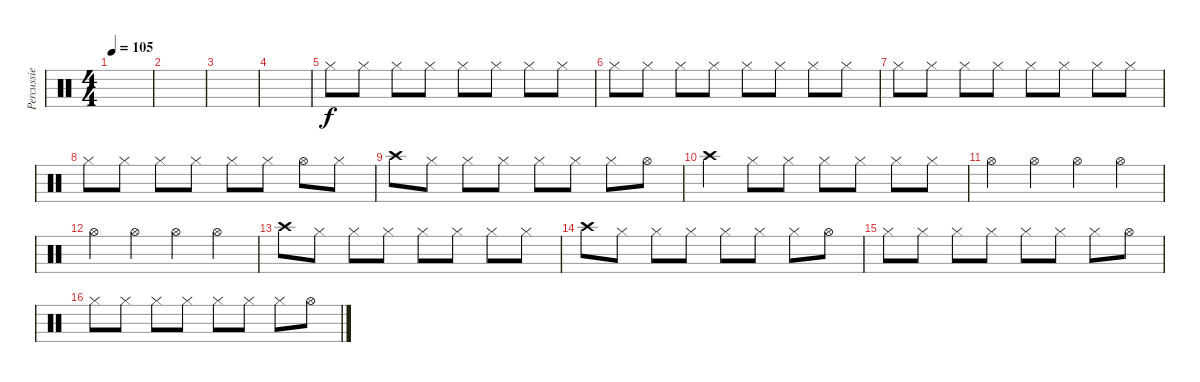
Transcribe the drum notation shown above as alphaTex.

\track ("Percussie" "Percussie") {instrument percussion}
\staff {score}
\articulation defaults
\ts (4 4)
\tempo 105
\clef neutral
\ks c
|
|
|
|
"Hi-Hat (closed)".8 "Hi-Hat (closed)".8 "Hi-Hat (closed)".8 "Hi-Hat (closed)".8 "Hi-Hat (closed)".8 "Hi-Hat (closed)".8 "Hi-Hat (closed)".8 "Hi-Hat (closed)".8 |
"Hi-Hat (closed)".8 "Hi-Hat (closed)".8 "Hi-Hat (closed)".8 "Hi-Hat (closed)".8 "Hi-Hat (closed)".8 "Hi-Hat (closed)".8 "Hi-Hat (closed)".8 "Hi-Hat (closed)".8 |
"Hi-Hat (closed)".8 "Hi-Hat (closed)".8 "Hi-Hat (closed)".8 "Hi-Hat (closed)".8 "Hi-Hat (closed)".8 "Hi-Hat (closed)".8 "Hi-Hat (closed)".8 "Hi-Hat (closed)".8 |
"Hi-Hat (closed)".8 "Hi-Hat (closed)".8 "Hi-Hat (closed)".8 "Hi-Hat (closed)".8 "Hi-Hat (closed)".8 "Hi-Hat (closed)".8 "Hi-Hat (open)".8 "Hi-Hat (closed)".8 |
"Crash high (hit)".8 "Hi-Hat (closed)".8 "Hi-Hat (closed)".8 "Hi-Hat (closed)".8 "Hi-Hat (closed)".8 "Hi-Hat (closed)".8 "Hi-Hat (closed)".8 "Hi-Hat (open)".8 |
"Crash high (hit)".4 "Hi-Hat (closed)".8 "Hi-Hat (closed)".8 "Hi-Hat (closed)".8 "Hi-Hat (closed)".8 "Hi-Hat (closed)".8 "Hi-Hat (closed)".8 |
"Hi-Hat (open)".4 "Hi-Hat (open)".4 "Hi-Hat (open)".4 "Hi-Hat (open)".4 |
"Hi-Hat (open)".4 "Hi-Hat (open)".4 "Hi-Hat (open)".4 "Hi-Hat (open)".4 |
"Crash high (hit)".8 "Hi-Hat (closed)".8 "Hi-Hat (closed)".8 "Hi-Hat (closed)".8 "Hi-Hat (closed)".8 "Hi-Hat (closed)".8 "Hi-Hat (closed)".8 "Hi-Hat (closed)".8 |
"Crash high (hit)".8 "Hi-Hat (closed)".8 "Hi-Hat (closed)".8 "Hi-Hat (closed)".8 "Hi-Hat (closed)".8 "Hi-Hat (closed)".8 "Hi-Hat (closed)".8 "Hi-Hat (open)".8 |
"Hi-Hat (closed)".8 "Hi-Hat (closed)".8 "Hi-Hat (closed)".8 "Hi-Hat (closed)".8 "Hi-Hat (closed)".8 "Hi-Hat (closed)".8 "Hi-Hat (closed)".8 "Hi-Hat (open)".8 |
"Hi-Hat (closed)".8 "Hi-Hat (closed)".8 "Hi-Hat (closed)".8 "Hi-Hat (closed)".8 "Hi-Hat (closed)".8 "Hi-Hat (closed)".8 "Hi-Hat (closed)".8 "Hi-Hat (open)".8
